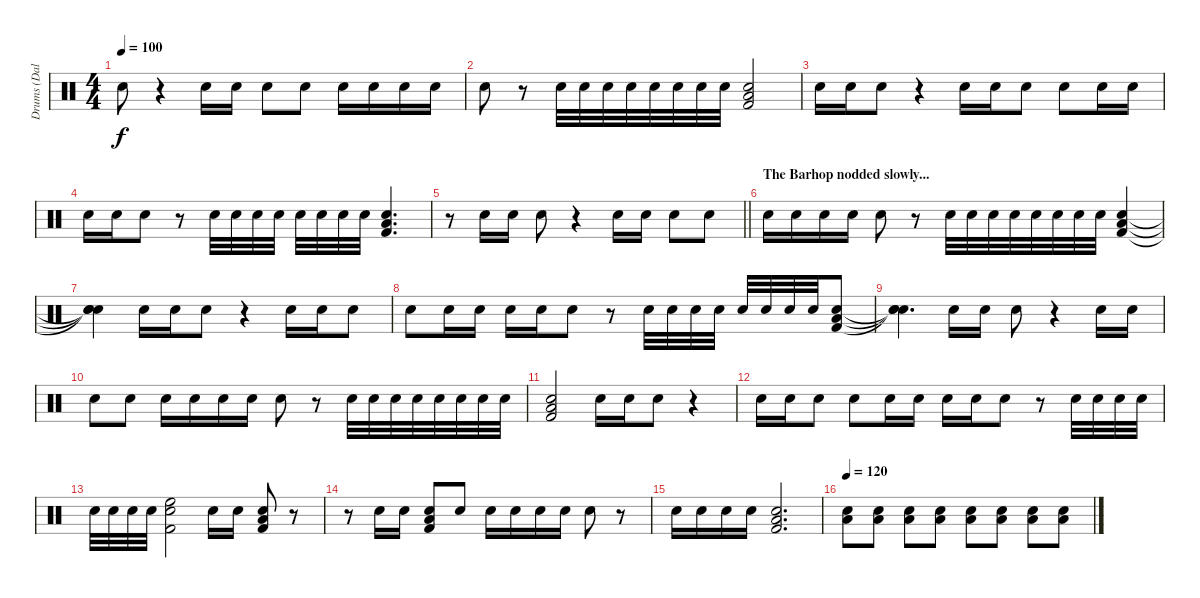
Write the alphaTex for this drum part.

\track ("Drums (Dalton Black)" "Drums (Dal") {instrument percussion}
\staff {score}
\articulation defaults
\ts (4 4)
\tempo 100
\clef neutral
\ks c "Electric Snare (hit)".8{dy f}
r.4 "Electric Snare (hit)".16 "Electric Snare (hit)".16 "Electric Snare (hit)".8 "Electric Snare (hit)".8 "Electric Snare (hit)".16 "Electric Snare (hit)".16 "Electric Snare (hit)".16 "Electric Snare (hit)".16 |
"Electric Snare (hit)".8 r.8 "Electric Snare (hit)".32 "Electric Snare (hit)".32 "Electric Snare (hit)".32 "Electric Snare (hit)".32 "Electric Snare (hit)".32 "Electric Snare (hit)".32 "Electric Snare (hit)".32 "Electric Snare (hit)".32 ("Low Tom (hit)" "Electric Snare (hit)" "Kick (hit) 2").2 |
"Electric Snare (hit)".16 "Electric Snare (hit)".16 "Electric Snare (hit)".8 r.4 "Electric Snare (hit)".16 "Electric Snare (hit)".16 "Electric Snare (hit)".8 "Electric Snare (hit)".8 "Electric Snare (hit)".16 "Electric Snare (hit)".16 |
"Electric Snare (hit)".16 "Electric Snare (hit)".16 "Electric Snare (hit)".8 r.8 "Electric Snare (hit)".32 "Electric Snare (hit)".32 "Electric Snare (hit)".32 "Electric Snare (hit)".32 "Electric Snare (hit)".32 "Electric Snare (hit)".32 "Electric Snare (hit)".32 "Electric Snare (hit)".32 ("Low Tom (hit)" "Electric Snare (hit)" "Kick (hit) 2").4{d} |
\barLineRight lightlight
r.8 "Electric Snare (hit)".16 "Electric Snare (hit)".16 "Electric Snare (hit)".8 r.4 "Electric Snare (hit)".16 "Electric Snare (hit)".16 "Electric Snare (hit)".8 "Electric Snare (hit)".8 |
\section ("" "The Barhop nodded slowly...")
"Electric Snare (hit)".16 "Electric Snare (hit)".16 "Electric Snare (hit)".16 "Electric Snare (hit)".16 "Electric Snare (hit)".8 r.8 "Electric Snare (hit)".32 "Electric Snare (hit)".32 "Electric Snare (hit)".32 "Electric Snare (hit)".32 "Electric Snare (hit)".32 "Electric Snare (hit)".32 "Electric Snare (hit)".32 "Electric Snare (hit)".32 ("Low Tom (hit)" "Electric Snare (hit)" "Kick (hit) 2").4 |
("Snare (hit)"{t} "Snare (hit)"{t} "Snare (hit)"{t}).4 "Electric Snare (hit)".16 "Electric Snare (hit)".16 "Electric Snare (hit)".8 r.4 "Electric Snare (hit)".16 "Electric Snare (hit)".16 "Electric Snare (hit)".8 |
"Electric Snare (hit)".8 "Electric Snare (hit)".16 "Electric Snare (hit)".16 "Electric Snare (hit)".16 "Electric Snare (hit)".16 "Electric Snare (hit)".8 r.8 "Electric Snare (hit)".32 "Electric Snare (hit)".32 "Electric Snare (hit)".32 "Electric Snare (hit)".32 "Electric Snare (hit)".32 "Electric Snare (hit)".32 "Electric Snare (hit)".32 "Electric Snare (hit)".32 ("Low Tom (hit)" "Electric Snare (hit)" "Kick (hit) 2").8 |
("Snare (hit)"{t} "Snare (hit)"{t} "Snare (hit)"{t}).4{d} "Electric Snare (hit)".16 "Electric Snare (hit)".16 "Electric Snare (hit)".8 r.4 "Electric Snare (hit)".16 "Electric Snare (hit)".16 |
"Electric Snare (hit)".8 "Electric Snare (hit)".8 "Electric Snare (hit)".16 "Electric Snare (hit)".16 "Electric Snare (hit)".16 "Electric Snare (hit)".16 "Electric Snare (hit)".8 r.8 "Electric Snare (hit)".32 "Electric Snare (hit)".32 "Electric Snare (hit)".32 "Electric Snare (hit)".32 "Electric Snare (hit)".32 "Electric Snare (hit)".32 "Electric Snare (hit)".32 "Electric Snare (hit)".32 |
("Low Tom (hit)" "Electric Snare (hit)" "Kick (hit) 2").2 "Electric Snare (hit)".16 "Electric Snare (hit)".16 "Electric Snare (hit)".8 r.4 |
"Electric Snare (hit)".16 "Electric Snare (hit)".16 "Electric Snare (hit)".8 "Electric Snare (hit)".8 "Electric Snare (hit)".16 "Electric Snare (hit)".16 "Electric Snare (hit)".16 "Electric Snare (hit)".16 "Electric Snare (hit)".8 r.8 "Electric Snare (hit)".32 "Electric Snare (hit)".32 "Electric Snare (hit)".32 "Electric Snare (hit)".32 |
"Electric Snare (hit)".32 "Electric Snare (hit)".32 "Electric Snare (hit)".32 "Electric Snare (hit)".32 ("High Floor Tom (hit)" "Electric Snare (hit)" "Kick (hit) 2").2 "Electric Snare (hit)".16 "Electric Snare (hit)".16 ("Low Tom (hit)" "Electric Snare (hit)" "Kick (hit) 2").8 r.8 |
r.8 "Electric Snare (hit)".16 "Electric Snare (hit)".16 ("Low Tom (hit)" "Electric Snare (hit)" "Kick (hit) 2").8 "Electric Snare (hit)".8 "Electric Snare (hit)".16 "Electric Snare (hit)".16 "Electric Snare (hit)".16 "Electric Snare (hit)".16 "Electric Snare (hit)".8 r.8 |
"Electric Snare (hit)".16 "Electric Snare (hit)".16 "Electric Snare (hit)".16 "Electric Snare (hit)".16 ("Low Tom (hit)" "Electric Snare (hit)" "Kick (hit) 2").2{d} |
\tempo 120
("Low Tom (hit)" "Electric Snare (hit)").8{volume 13} ("Low Tom (hit)" "Electric Snare (hit)").8 ("Low Tom (hit)" "Electric Snare (hit)").8 ("Low Tom (hit)" "Electric Snare (hit)").8 ("Low Tom (hit)" "Electric Snare (hit)").8 ("Low Tom (hit)" "Electric Snare (hit)").8 ("Low Tom (hit)" "Electric Snare (hit)").8 ("Low Tom (hit)" "Electric Snare (hit)").8
